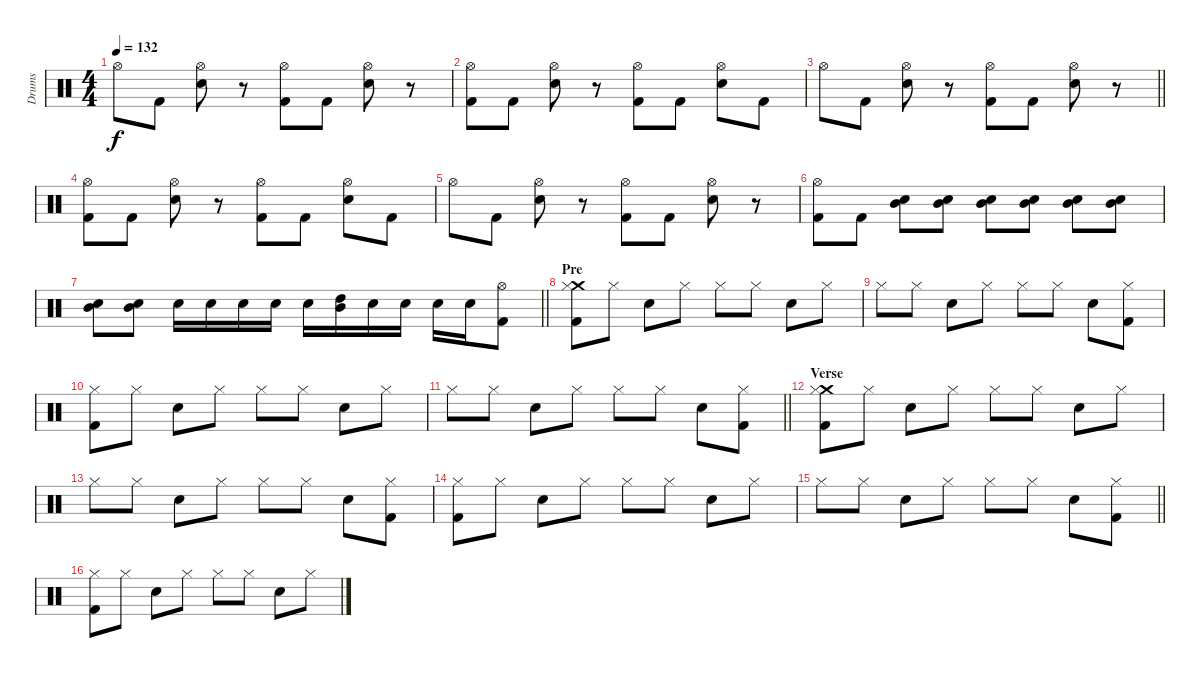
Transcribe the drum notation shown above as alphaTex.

\track ("Drums" "Drums") {instrument percussion}
\staff
\articulation defaults
\ts (4 4)
\tempo 132
\clef neutral
\ks c "Hi-Hat (open)".8{dy f} "Kick (hit) 2".8
("Hi-Hat (open)" "Snare (hit) 2").8 r.8 ("Hi-Hat (open)" "Kick (hit) 2").8 "Kick (hit) 2".8 ("Hi-Hat (open)" "Snare (hit) 2").8 r.8 |
("Hi-Hat (open)" "Kick (hit) 2").8 "Kick (hit) 2".8 ("Hi-Hat (open)" "Snare (hit) 2").8 r.8 ("Hi-Hat (open)" "Kick (hit) 2").8 "Kick (hit) 2".8 ("Hi-Hat (open)" "Snare (hit) 2").8 "Kick (hit) 2".8 |
\barLineRight lightlight "Hi-Hat (open)".8 "Kick (hit) 2".8
("Hi-Hat (open)" "Snare (hit) 2").8 r.8 ("Hi-Hat (open)" "Kick (hit) 2").8 "Kick (hit) 2".8 ("Hi-Hat (open)" "Snare (hit) 2").8 r.8 |
("Hi-Hat (open)" "Kick (hit) 2").8 "Kick (hit) 2".8 ("Hi-Hat (open)" "Snare (hit) 2").8 r.8 ("Hi-Hat (open)" "Kick (hit) 2").8 "Kick (hit) 2".8 ("Hi-Hat (open)" "Snare (hit) 2").8 "Kick (hit) 2".8 |
"Hi-Hat (open)".8 "Kick (hit) 2".8 ("Hi-Hat (open)" "Snare (hit) 2").8 r.8 ("Hi-Hat (open)" "Kick (hit) 2").8 "Kick (hit) 2".8 ("Hi-Hat (open)" "Snare (hit) 2").8 r.8 |
("Hi-Hat (open)" "Kick (hit) 2").8 "Kick (hit) 2".8 ("Mid Tom (hit)" "Snare (hit) 2").8 ("Mid Tom (hit)" "Snare (hit) 2").8 ("Mid Tom (hit)" "Snare (hit) 2").8 ("Mid Tom (hit)" "Snare (hit) 2").8 ("Mid Tom (hit)" "Snare (hit) 2").8 ("Mid Tom (hit)" "Snare (hit) 2").8 |
\barLineRight lightlight
("Mid Tom (hit)" "Snare (hit) 2").8 ("Mid Tom (hit)" "Snare (hit) 2").8 "Snare (hit) 2".16 "Snare (hit) 2".16 "Snare (hit) 2".16 "Snare (hit) 2".16 "Snare (hit) 2".16 ("Mid Tom (hit)" "High Tom (hit)").16 "Snare (hit) 2".16 "Snare (hit) 2".16 "Snare (hit) 2".16 "Snare (hit) 2".16 ("Hi-Hat (open)" "Kick (hit) 2").8 |
\section ("" "Pre")
("Crash medium (hit)" "Hi-Hat (closed)" "Kick (hit) 2").8 "Hi-Hat (closed)".8 "Snare (hit) 2".8 "Hi-Hat (closed)".8 "Hi-Hat (closed)".8 "Hi-Hat (closed)".8 "Snare (hit) 2".8 "Hi-Hat (closed)".8 |
"Hi-Hat (closed)".8 "Hi-Hat (closed)".8 "Snare (hit) 2".8 "Hi-Hat (closed)".8 "Hi-Hat (closed)".8 "Hi-Hat (closed)".8 "Snare (hit) 2".8 ("Hi-Hat (closed)" "Kick (hit) 2").8 |
("Hi-Hat (closed)" "Kick (hit) 2").8 "Hi-Hat (closed)".8 "Snare (hit) 2".8 "Hi-Hat (closed)".8 "Hi-Hat (closed)".8 "Hi-Hat (closed)".8 "Snare (hit) 2".8 "Hi-Hat (closed)".8 |
\barLineRight lightlight "Hi-Hat (closed)".8 "Hi-Hat (closed)".8 "Snare (hit) 2".8 "Hi-Hat (closed)".8 "Hi-Hat (closed)".8 "Hi-Hat (closed)".8 "Snare (hit) 2".8
("Hi-Hat (closed)" "Kick (hit) 2").8 |
\section ("" "Verse")
("Crash medium (hit)" "Hi-Hat (closed)" "Kick (hit) 2").8 "Hi-Hat (closed)".8 "Snare (hit) 2".8 "Hi-Hat (closed)".8 "Hi-Hat (closed)".8 "Hi-Hat (closed)".8 "Snare (hit) 2".8 "Hi-Hat (closed)".8 |
"Hi-Hat (closed)".8 "Hi-Hat (closed)".8 "Snare (hit) 2".8 "Hi-Hat (closed)".8 "Hi-Hat (closed)".8 "Hi-Hat (closed)".8 "Snare (hit) 2".8 ("Hi-Hat (closed)" "Kick (hit) 2").8 |
("Hi-Hat (closed)" "Kick (hit) 2").8 "Hi-Hat (closed)".8 "Snare (hit) 2".8 "Hi-Hat (closed)".8 "Hi-Hat (closed)".8 "Hi-Hat (closed)".8 "Snare (hit) 2".8 "Hi-Hat (closed)".8 |
\barLineRight lightlight "Hi-Hat (closed)".8 "Hi-Hat (closed)".8 "Snare (hit) 2".8 "Hi-Hat (closed)".8 "Hi-Hat (closed)".8 "Hi-Hat (closed)".8 "Snare (hit) 2".8
("Hi-Hat (closed)" "Kick (hit) 2").8 |
("Hi-Hat (closed)" "Kick (hit) 2").8 "Hi-Hat (closed)".8 "Snare (hit) 2".8 "Hi-Hat (closed)".8 "Hi-Hat (closed)".8 "Hi-Hat (closed)".8 "Snare (hit) 2".8 "Hi-Hat (closed)".8
